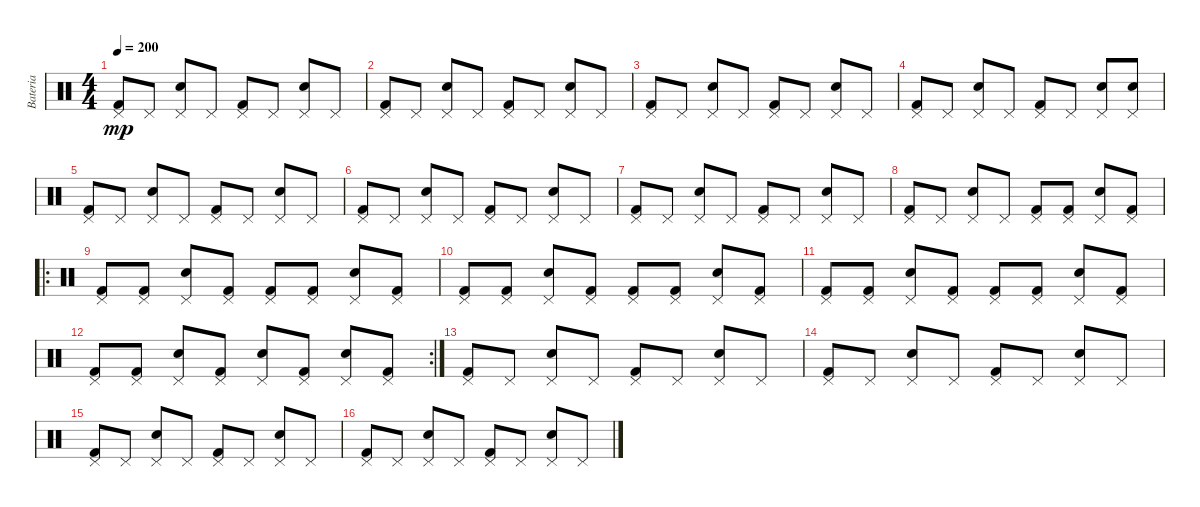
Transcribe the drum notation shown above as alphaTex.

\track ("Bateria" "Bateria") {instrument percussion}
\staff {score}
\articulation defaults
\ts (4 4)
\tempo 200
\clef neutral
\ks c
("Pedal Hi-Hat (hit)" "Kick (hit) 2").8{dy mp} "Pedal Hi-Hat (hit)".8 ("Pedal Hi-Hat (hit)" "Electric Snare (hit)").8 "Pedal Hi-Hat (hit)".8 ("Pedal Hi-Hat (hit)" "Kick (hit) 2").8 "Pedal Hi-Hat (hit)".8 ("Pedal Hi-Hat (hit)" "Electric Snare (hit)").8 "Pedal Hi-Hat (hit)".8 |
("Pedal Hi-Hat (hit)" "Kick (hit) 2").8 "Pedal Hi-Hat (hit)".8 ("Pedal Hi-Hat (hit)" "Electric Snare (hit)").8 "Pedal Hi-Hat (hit)".8 ("Pedal Hi-Hat (hit)" "Kick (hit) 2").8 "Pedal Hi-Hat (hit)".8 ("Pedal Hi-Hat (hit)" "Electric Snare (hit)").8 "Pedal Hi-Hat (hit)".8 |
("Pedal Hi-Hat (hit)" "Kick (hit) 2").8 "Pedal Hi-Hat (hit)".8 ("Pedal Hi-Hat (hit)" "Electric Snare (hit)").8 "Pedal Hi-Hat (hit)".8 ("Pedal Hi-Hat (hit)" "Kick (hit) 2").8 "Pedal Hi-Hat (hit)".8 ("Pedal Hi-Hat (hit)" "Electric Snare (hit)").8 "Pedal Hi-Hat (hit)".8 |
("Pedal Hi-Hat (hit)" "Kick (hit) 2").8 "Pedal Hi-Hat (hit)".8 ("Pedal Hi-Hat (hit)" "Electric Snare (hit)").8 "Pedal Hi-Hat (hit)".8 ("Pedal Hi-Hat (hit)" "Kick (hit) 2").8 "Pedal Hi-Hat (hit)".8 ("Pedal Hi-Hat (hit)" "Electric Snare (hit)").8 ("Pedal Hi-Hat (hit)" "Electric Snare (hit)").8 |
("Pedal Hi-Hat (hit)" "Kick (hit) 2").8 "Pedal Hi-Hat (hit)".8 ("Pedal Hi-Hat (hit)" "Electric Snare (hit)").8 "Pedal Hi-Hat (hit)".8 ("Pedal Hi-Hat (hit)" "Kick (hit) 2").8 "Pedal Hi-Hat (hit)".8 ("Pedal Hi-Hat (hit)" "Electric Snare (hit)").8 "Pedal Hi-Hat (hit)".8 |
("Pedal Hi-Hat (hit)" "Kick (hit) 2").8 "Pedal Hi-Hat (hit)".8 ("Pedal Hi-Hat (hit)" "Electric Snare (hit)").8 "Pedal Hi-Hat (hit)".8 ("Pedal Hi-Hat (hit)" "Kick (hit) 2").8 "Pedal Hi-Hat (hit)".8 ("Pedal Hi-Hat (hit)" "Electric Snare (hit)").8 "Pedal Hi-Hat (hit)".8 |
("Pedal Hi-Hat (hit)" "Kick (hit) 2").8 "Pedal Hi-Hat (hit)".8 ("Pedal Hi-Hat (hit)" "Electric Snare (hit)").8 "Pedal Hi-Hat (hit)".8 ("Pedal Hi-Hat (hit)" "Kick (hit) 2").8 "Pedal Hi-Hat (hit)".8 ("Pedal Hi-Hat (hit)" "Electric Snare (hit)").8 "Pedal Hi-Hat (hit)".8 |
("Pedal Hi-Hat (hit)" "Kick (hit) 2").8 "Pedal Hi-Hat (hit)".8 ("Pedal Hi-Hat (hit)" "Electric Snare (hit)").8 "Pedal Hi-Hat (hit)".8 ("Pedal Hi-Hat (hit)" "Kick (hit) 2").8 ("Pedal Hi-Hat (hit)" "Kick (hit) 2").8 ("Pedal Hi-Hat (hit)" "Electric Snare (hit)").8 ("Pedal Hi-Hat (hit)" "Kick (hit) 2").8 |
\ro
("Pedal Hi-Hat (hit)" "Kick (hit) 2").8 ("Pedal Hi-Hat (hit)" "Kick (hit) 2").8 ("Pedal Hi-Hat (hit)" "Electric Snare (hit)").8 ("Pedal Hi-Hat (hit)" "Kick (hit) 2").8 ("Pedal Hi-Hat (hit)" "Kick (hit) 2").8 ("Pedal Hi-Hat (hit)" "Kick (hit) 2").8 ("Pedal Hi-Hat (hit)" "Electric Snare (hit)").8 ("Pedal Hi-Hat (hit)" "Kick (hit) 2").8 |
("Pedal Hi-Hat (hit)" "Kick (hit) 2").8 ("Pedal Hi-Hat (hit)" "Kick (hit) 2").8 ("Pedal Hi-Hat (hit)" "Electric Snare (hit)").8 ("Pedal Hi-Hat (hit)" "Kick (hit) 2").8 ("Pedal Hi-Hat (hit)" "Kick (hit) 2").8 ("Pedal Hi-Hat (hit)" "Kick (hit) 2").8 ("Pedal Hi-Hat (hit)" "Electric Snare (hit)").8 ("Pedal Hi-Hat (hit)" "Kick (hit) 2").8 |
("Pedal Hi-Hat (hit)" "Kick (hit) 2").8 ("Pedal Hi-Hat (hit)" "Kick (hit) 2").8 ("Pedal Hi-Hat (hit)" "Electric Snare (hit)").8 ("Pedal Hi-Hat (hit)" "Kick (hit) 2").8 ("Pedal Hi-Hat (hit)" "Kick (hit) 2").8 ("Pedal Hi-Hat (hit)" "Kick (hit) 2").8 ("Pedal Hi-Hat (hit)" "Electric Snare (hit)").8 ("Pedal Hi-Hat (hit)" "Kick (hit) 2").8 |
\rc 2
("Pedal Hi-Hat (hit)" "Kick (hit) 2").8 ("Pedal Hi-Hat (hit)" "Kick (hit) 2").8 ("Pedal Hi-Hat (hit)" "Electric Snare (hit)").8 ("Pedal Hi-Hat (hit)" "Kick (hit) 2").8 ("Pedal Hi-Hat (hit)" "Electric Snare (hit)").8 ("Pedal Hi-Hat (hit)" "Kick (hit) 2").8 ("Pedal Hi-Hat (hit)" "Electric Snare (hit)").8 ("Pedal Hi-Hat (hit)" "Kick (hit) 2").8 |
("Pedal Hi-Hat (hit)" "Kick (hit) 2").8 "Pedal Hi-Hat (hit)".8 ("Pedal Hi-Hat (hit)" "Electric Snare (hit)").8 "Pedal Hi-Hat (hit)".8 ("Pedal Hi-Hat (hit)" "Kick (hit) 2").8 "Pedal Hi-Hat (hit)".8 ("Pedal Hi-Hat (hit)" "Electric Snare (hit)").8 "Pedal Hi-Hat (hit)".8 |
("Pedal Hi-Hat (hit)" "Kick (hit) 2").8 "Pedal Hi-Hat (hit)".8 ("Pedal Hi-Hat (hit)" "Electric Snare (hit)").8 "Pedal Hi-Hat (hit)".8 ("Pedal Hi-Hat (hit)" "Kick (hit) 2").8 "Pedal Hi-Hat (hit)".8 ("Pedal Hi-Hat (hit)" "Electric Snare (hit)").8 "Pedal Hi-Hat (hit)".8 |
("Pedal Hi-Hat (hit)" "Kick (hit) 2").8 "Pedal Hi-Hat (hit)".8 ("Pedal Hi-Hat (hit)" "Electric Snare (hit)").8 "Pedal Hi-Hat (hit)".8 ("Pedal Hi-Hat (hit)" "Kick (hit) 2").8 "Pedal Hi-Hat (hit)".8 ("Pedal Hi-Hat (hit)" "Electric Snare (hit)").8 "Pedal Hi-Hat (hit)".8 |
("Pedal Hi-Hat (hit)" "Kick (hit) 2").8 "Pedal Hi-Hat (hit)".8 ("Pedal Hi-Hat (hit)" "Electric Snare (hit)").8 "Pedal Hi-Hat (hit)".8 ("Pedal Hi-Hat (hit)" "Kick (hit) 2").8 "Pedal Hi-Hat (hit)".8 ("Pedal Hi-Hat (hit)" "Electric Snare (hit)").8 "Pedal Hi-Hat (hit)".8
